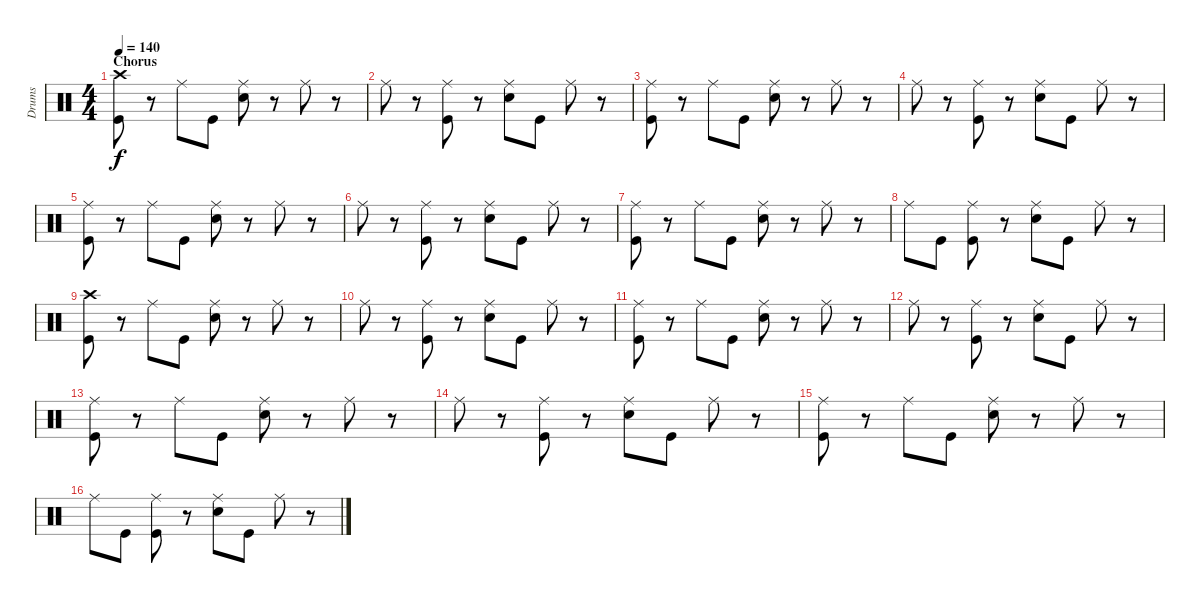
\track ("Drums" "Drums") {instrument percussion}
\staff {score}
\articulation defaults
\ts (4 4)
\section ("" "Chorus")
\tempo 140
\clef neutral
\ks c
("Crash high (hit)" "Kick (hit)").8{dy f} r.8 "Ride (middle)".8 "Kick (hit)".8 ("Ride (middle)" "Snare (hit) 2").8 r.8 "Ride (middle)".8 r.8 |
"Ride (middle)".8 r.8 ("Ride (middle)" "Kick (hit)").8 r.8 ("Ride (middle)" "Snare (hit) 2").8 "Kick (hit)".8 "Ride (middle)".8 r.8 |
("Ride (middle)" "Kick (hit)").8 r.8 "Ride (middle)".8 "Kick (hit)".8 ("Ride (middle)" "Snare (hit) 2").8 r.8 "Ride (middle)".8 r.8 |
"Ride (middle)".8 r.8 ("Ride (middle)" "Kick (hit)").8 r.8 ("Ride (middle)" "Snare (hit) 2").8 "Kick (hit)".8 "Ride (middle)".8 r.8 |
("Ride (middle)" "Kick (hit)").8 r.8 "Ride (middle)".8 "Kick (hit)".8 ("Ride (middle)" "Snare (hit) 2").8 r.8 "Ride (middle)".8 r.8 |
"Ride (middle)".8 r.8 ("Ride (middle)" "Kick (hit)").8 r.8 ("Ride (middle)" "Snare (hit) 2").8 "Kick (hit)".8 "Ride (middle)".8 r.8 |
("Ride (middle)" "Kick (hit)").8 r.8 "Ride (middle)".8 "Kick (hit)".8 ("Ride (middle)" "Snare (hit) 2").8 r.8 "Ride (middle)".8 r.8 |
"Ride (middle)".8 "Kick (hit)".8 ("Ride (middle)" "Kick (hit)").8 r.8 ("Ride (middle)" "Snare (hit) 2").8 "Kick (hit)".8 "Ride (middle)".8 r.8 |
("Crash high (hit)" "Kick (hit)").8 r.8 "Ride (middle)".8 "Kick (hit)".8 ("Ride (middle)" "Snare (hit) 2").8 r.8 "Ride (middle)".8 r.8 |
"Ride (middle)".8 r.8 ("Ride (middle)" "Kick (hit)").8 r.8 ("Ride (middle)" "Snare (hit) 2").8 "Kick (hit)".8 "Ride (middle)".8 r.8 |
("Ride (middle)" "Kick (hit)").8 r.8 "Ride (middle)".8 "Kick (hit)".8 ("Ride (middle)" "Snare (hit) 2").8 r.8 "Ride (middle)".8 r.8 |
"Ride (middle)".8 r.8 ("Ride (middle)" "Kick (hit)").8 r.8 ("Ride (middle)" "Snare (hit) 2").8 "Kick (hit)".8 "Ride (middle)".8 r.8 |
("Ride (middle)" "Kick (hit)").8 r.8 "Ride (middle)".8 "Kick (hit)".8 ("Ride (middle)" "Snare (hit) 2").8 r.8 "Ride (middle)".8 r.8 |
"Ride (middle)".8 r.8 ("Ride (middle)" "Kick (hit)").8 r.8 ("Ride (middle)" "Snare (hit) 2").8 "Kick (hit)".8 "Ride (middle)".8 r.8 |
("Ride (middle)" "Kick (hit)").8 r.8 "Ride (middle)".8 "Kick (hit)".8 ("Ride (middle)" "Snare (hit) 2").8 r.8 "Ride (middle)".8 r.8 |
"Ride (middle)".8 "Kick (hit)".8 ("Ride (middle)" "Kick (hit)").8 r.8 ("Ride (middle)" "Snare (hit) 2").8 "Kick (hit)".8 "Ride (middle)".8 r.8
